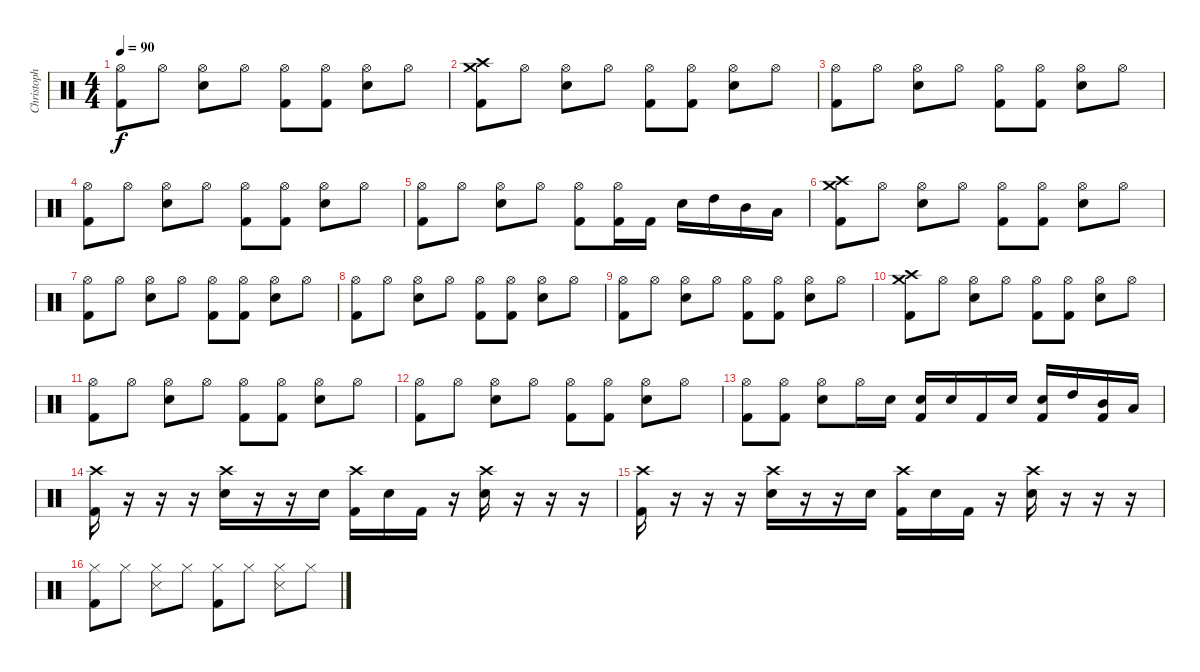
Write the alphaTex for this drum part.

\track ("Christoph Schneider" "Christoph ") {instrument percussion}
\staff {score}
\articulation defaults
\ts (4 4)
\tempo 90
\clef neutral
\ks c
("Kick (hit) 2" "Hi-Hat (open)").8{dy f} "Hi-Hat (open)".8 ("Snare (hit) 2" "Hi-Hat (open)").8 "Hi-Hat (open)".8 ("Kick (hit) 2" "Hi-Hat (open)").8 ("Kick (hit) 2" "Hi-Hat (open)").8 ("Snare (hit) 2" "Hi-Hat (open)").8 "Hi-Hat (open)".8 |
("Crash medium (hit)" "Kick (hit) 2" "Crash high (hit)").8 "Hi-Hat (open)".8 ("Snare (hit) 2" "Hi-Hat (open)").8 "Hi-Hat (open)".8 ("Kick (hit) 2" "Hi-Hat (open)").8 ("Kick (hit) 2" "Hi-Hat (open)").8 ("Snare (hit) 2" "Hi-Hat (open)").8 "Hi-Hat (open)".8 |
("Kick (hit) 2" "Hi-Hat (open)").8 "Hi-Hat (open)".8 ("Snare (hit) 2" "Hi-Hat (open)").8 "Hi-Hat (open)".8 ("Kick (hit) 2" "Hi-Hat (open)").8 ("Kick (hit) 2" "Hi-Hat (open)").8 ("Snare (hit) 2" "Hi-Hat (open)").8 "Hi-Hat (open)".8 |
("Kick (hit) 2" "Hi-Hat (open)").8 "Hi-Hat (open)".8 ("Snare (hit) 2" "Hi-Hat (open)").8 "Hi-Hat (open)".8 ("Kick (hit) 2" "Hi-Hat (open)").8 ("Kick (hit) 2" "Hi-Hat (open)").8 ("Snare (hit) 2" "Hi-Hat (open)").8 "Hi-Hat (open)".8 |
("Kick (hit) 2" "Hi-Hat (open)").8 "Hi-Hat (open)".8 ("Snare (hit) 2" "Hi-Hat (open)").8 "Hi-Hat (open)".8 ("Kick (hit) 2" "Hi-Hat (open)").8 ("Kick (hit) 2" "Hi-Hat (open)").16 "Kick (hit) 2".16 "Snare (hit) 2".16 "High Tom (hit)".16 "Mid Tom (hit)".16 "Low Tom (hit)".16 |
("Crash medium (hit)" "Kick (hit) 2" "Crash high (hit)").8 "Hi-Hat (open)".8 ("Snare (hit) 2" "Hi-Hat (open)").8 "Hi-Hat (open)".8 ("Kick (hit) 2" "Hi-Hat (open)").8 ("Kick (hit) 2" "Hi-Hat (open)").8 ("Snare (hit) 2" "Hi-Hat (open)").8 "Hi-Hat (open)".8 |
("Kick (hit) 2" "Hi-Hat (open)").8 "Hi-Hat (open)".8 ("Snare (hit) 2" "Hi-Hat (open)").8 "Hi-Hat (open)".8 ("Kick (hit) 2" "Hi-Hat (open)").8 ("Kick (hit) 2" "Hi-Hat (open)").8 ("Snare (hit) 2" "Hi-Hat (open)").8 "Hi-Hat (open)".8 |
("Kick (hit) 2" "Hi-Hat (open)").8 "Hi-Hat (open)".8 ("Snare (hit) 2" "Hi-Hat (open)").8 "Hi-Hat (open)".8 ("Kick (hit) 2" "Hi-Hat (open)").8 ("Kick (hit) 2" "Hi-Hat (open)").8 ("Snare (hit) 2" "Hi-Hat (open)").8 "Hi-Hat (open)".8 |
("Kick (hit) 2" "Hi-Hat (open)").8 "Hi-Hat (open)".8 ("Snare (hit) 2" "Hi-Hat (open)").8 "Hi-Hat (open)".8 ("Kick (hit) 2" "Hi-Hat (open)").8 ("Kick (hit) 2" "Hi-Hat (open)").8 ("Snare (hit) 2" "Hi-Hat (open)").8 "Hi-Hat (open)".8 |
("Crash medium (hit)" "Kick (hit) 2" "Crash high (hit)").8 "Hi-Hat (open)".8 ("Snare (hit) 2" "Hi-Hat (open)").8 "Hi-Hat (open)".8 ("Kick (hit) 2" "Hi-Hat (open)").8 ("Kick (hit) 2" "Hi-Hat (open)").8 ("Snare (hit) 2" "Hi-Hat (open)").8 "Hi-Hat (open)".8 |
("Kick (hit) 2" "Hi-Hat (open)").8 "Hi-Hat (open)".8 ("Snare (hit) 2" "Hi-Hat (open)").8 "Hi-Hat (open)".8 ("Kick (hit) 2" "Hi-Hat (open)").8 ("Kick (hit) 2" "Hi-Hat (open)").8 ("Snare (hit) 2" "Hi-Hat (open)").8 "Hi-Hat (open)".8 |
("Kick (hit) 2" "Hi-Hat (open)").8 "Hi-Hat (open)".8 ("Snare (hit) 2" "Hi-Hat (open)").8 "Hi-Hat (open)".8 ("Kick (hit) 2" "Hi-Hat (open)").8 ("Kick (hit) 2" "Hi-Hat (open)").8 ("Snare (hit) 2" "Hi-Hat (open)").8 "Hi-Hat (open)".8 |
("Kick (hit) 2" "Hi-Hat (open)").8 ("Hi-Hat (open)" "Kick (hit) 2").8 ("Snare (hit) 2" "Hi-Hat (open)").8 "Hi-Hat (open)".16 "Snare (hit) 2".16 ("Snare (hit) 2" "Kick (hit) 2").16 "Snare (hit) 2".16 "Kick (hit) 2".16 "Snare (hit) 2".16 ("Snare (hit) 2" "Kick (hit) 2").16 "High Tom (hit)".16 ("Mid Tom (hit)" "Kick (hit) 2").16 "Low Tom (hit)".16 |
("Crash high (hit)" "Kick (hit) 2").16 r.16 r.16 r.16 ("Crash high (hit)" "Snare (hit) 2").16 r.16 r.16 "Snare (hit) 2".16 ("Crash high (hit)" "Kick (hit) 2").16 "Snare (hit) 2".16 "Kick (hit) 2".16 r.16 ("Crash high (hit)" "Snare (hit) 2").16 r.16 r.16 r.16 |
("Crash high (hit)" "Kick (hit) 2").16 r.16 r.16 r.16 ("Crash high (hit)" "Snare (hit) 2").16 r.16 r.16 "Snare (hit) 2".16 ("Crash high (hit)" "Kick (hit) 2").16 "Snare (hit) 2".16 "Kick (hit) 2".16 r.16 ("Crash high (hit)" "Snare (hit) 2").16 r.16 r.16 r.16 |
("Kick (hit) 2" "Hi-Hat (closed)").8 "Hi-Hat (closed)".8 ("Snare (side stick) 3" "Hi-Hat (closed)").8 "Hi-Hat (closed)".8 ("Kick (hit) 2" "Hi-Hat (closed)").8 "Hi-Hat (closed)".8 ("Snare (side stick) 3" "Hi-Hat (closed)").8 "Hi-Hat (closed)".8
